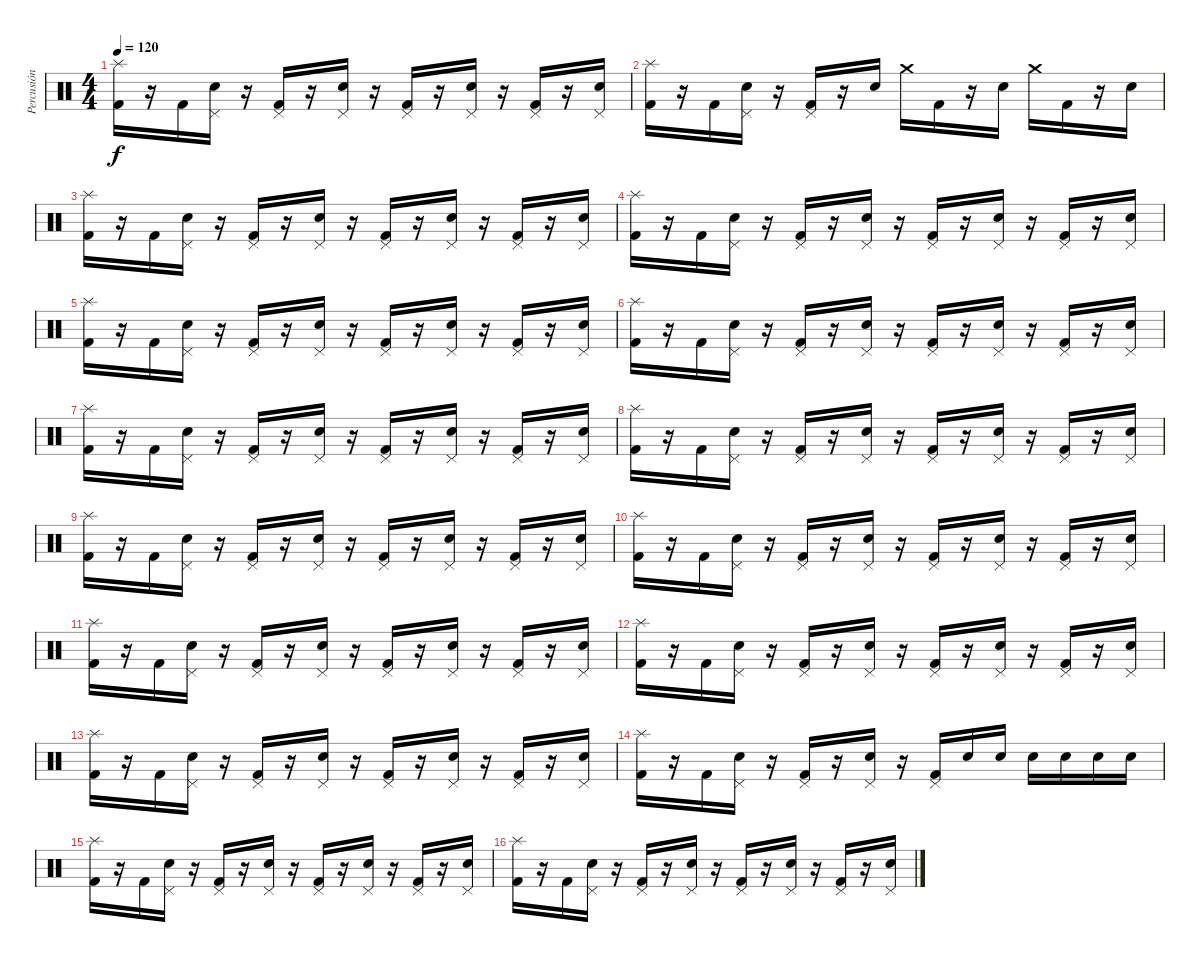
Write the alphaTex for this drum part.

\track ("Percusión" "Percusión") {instrument percussion}
\staff {score}
\articulation defaults
\ts (4 4)
\tempo 120
\clef neutral
\ks c
("Splash (hit)" "Kick (hit) 2").16{dy f} r.16 "Kick (hit) 2".16 ("Pedal Hi-Hat (hit)" "Snare (hit) 2").16 r.16 ("Pedal Hi-Hat (hit)" "Kick (hit) 2").16 r.16 ("Pedal Hi-Hat (hit)" "Snare (hit) 2").16 r.16 ("Pedal Hi-Hat (hit)" "Kick (hit) 2").16 r.16 ("Pedal Hi-Hat (hit)" "Snare (hit) 2").16 r.16 ("Pedal Hi-Hat (hit)" "Kick (hit) 2").16 r.16 ("Pedal Hi-Hat (hit)" "Snare (hit) 2").16 |
("Splash (hit)" "Kick (hit) 2").16 r.16 "Kick (hit) 2".16 ("Pedal Hi-Hat (hit)" "Snare (hit) 2").16 r.16 ("Pedal Hi-Hat (hit)" "Kick (hit) 2").16 r.16 "Snare (hit) 2".16 "Crash medium (hit)".16 "Kick (hit) 2".16 r.16 "Snare (hit) 2".16 "Crash medium (hit)".16 "Kick (hit) 2".16 r.16 "Snare (hit) 2".16 |
("Splash (hit)" "Kick (hit) 2").16 r.16 "Kick (hit) 2".16 ("Pedal Hi-Hat (hit)" "Snare (hit) 2").16 r.16 ("Pedal Hi-Hat (hit)" "Kick (hit) 2").16 r.16 ("Pedal Hi-Hat (hit)" "Snare (hit) 2").16 r.16 ("Pedal Hi-Hat (hit)" "Kick (hit) 2").16 r.16 ("Pedal Hi-Hat (hit)" "Snare (hit) 2").16 r.16 ("Pedal Hi-Hat (hit)" "Kick (hit) 2").16 r.16 ("Pedal Hi-Hat (hit)" "Snare (hit) 2").16 |
("Splash (hit)" "Kick (hit) 2").16 r.16 "Kick (hit) 2".16 ("Pedal Hi-Hat (hit)" "Snare (hit) 2").16 r.16 ("Pedal Hi-Hat (hit)" "Kick (hit) 2").16 r.16 ("Pedal Hi-Hat (hit)" "Snare (hit) 2").16 r.16 ("Pedal Hi-Hat (hit)" "Kick (hit) 2").16 r.16 ("Pedal Hi-Hat (hit)" "Snare (hit) 2").16 r.16 ("Pedal Hi-Hat (hit)" "Kick (hit) 2").16 r.16 ("Pedal Hi-Hat (hit)" "Snare (hit) 2").16 |
("Splash (hit)" "Kick (hit) 2").16 r.16 "Kick (hit) 2".16 ("Pedal Hi-Hat (hit)" "Snare (hit) 2").16 r.16 ("Pedal Hi-Hat (hit)" "Kick (hit) 2").16 r.16 ("Pedal Hi-Hat (hit)" "Snare (hit) 2").16 r.16 ("Pedal Hi-Hat (hit)" "Kick (hit) 2").16 r.16 ("Pedal Hi-Hat (hit)" "Snare (hit) 2").16 r.16 ("Pedal Hi-Hat (hit)" "Kick (hit) 2").16 r.16 ("Pedal Hi-Hat (hit)" "Snare (hit) 2").16 |
("Splash (hit)" "Kick (hit) 2").16 r.16 "Kick (hit) 2".16 ("Pedal Hi-Hat (hit)" "Snare (hit) 2").16 r.16 ("Pedal Hi-Hat (hit)" "Kick (hit) 2").16 r.16 ("Pedal Hi-Hat (hit)" "Snare (hit) 2").16 r.16 ("Pedal Hi-Hat (hit)" "Kick (hit) 2").16 r.16 ("Pedal Hi-Hat (hit)" "Snare (hit) 2").16 r.16 ("Pedal Hi-Hat (hit)" "Kick (hit) 2").16 r.16 ("Pedal Hi-Hat (hit)" "Snare (hit) 2").16 |
("Splash (hit)" "Kick (hit) 2").16 r.16 "Kick (hit) 2".16 ("Pedal Hi-Hat (hit)" "Snare (hit) 2").16 r.16 ("Pedal Hi-Hat (hit)" "Kick (hit) 2").16 r.16 ("Pedal Hi-Hat (hit)" "Snare (hit) 2").16 r.16 ("Pedal Hi-Hat (hit)" "Kick (hit) 2").16 r.16 ("Pedal Hi-Hat (hit)" "Snare (hit) 2").16 r.16 ("Pedal Hi-Hat (hit)" "Kick (hit) 2").16 r.16 ("Pedal Hi-Hat (hit)" "Snare (hit) 2").16 |
("Splash (hit)" "Kick (hit) 2").16 r.16 "Kick (hit) 2".16 ("Pedal Hi-Hat (hit)" "Snare (hit) 2").16 r.16 ("Pedal Hi-Hat (hit)" "Kick (hit) 2").16 r.16 ("Pedal Hi-Hat (hit)" "Snare (hit) 2").16 r.16 ("Pedal Hi-Hat (hit)" "Kick (hit) 2").16 r.16 ("Pedal Hi-Hat (hit)" "Snare (hit) 2").16 r.16 ("Pedal Hi-Hat (hit)" "Kick (hit) 2").16 r.16 ("Pedal Hi-Hat (hit)" "Snare (hit) 2").16 |
("Splash (hit)" "Kick (hit) 2").16 r.16 "Kick (hit) 2".16 ("Pedal Hi-Hat (hit)" "Snare (hit) 2").16 r.16 ("Pedal Hi-Hat (hit)" "Kick (hit) 2").16 r.16 ("Pedal Hi-Hat (hit)" "Snare (hit) 2").16 r.16 ("Pedal Hi-Hat (hit)" "Kick (hit) 2").16 r.16 ("Pedal Hi-Hat (hit)" "Snare (hit) 2").16 r.16 ("Pedal Hi-Hat (hit)" "Kick (hit) 2").16 r.16 ("Pedal Hi-Hat (hit)" "Snare (hit) 2").16 |
("Splash (hit)" "Kick (hit) 2").16 r.16 "Kick (hit) 2".16 ("Pedal Hi-Hat (hit)" "Snare (hit) 2").16 r.16 ("Pedal Hi-Hat (hit)" "Kick (hit) 2").16 r.16 ("Pedal Hi-Hat (hit)" "Snare (hit) 2").16 r.16 ("Pedal Hi-Hat (hit)" "Kick (hit) 2").16 r.16 ("Pedal Hi-Hat (hit)" "Snare (hit) 2").16 r.16 ("Pedal Hi-Hat (hit)" "Kick (hit) 2").16 r.16 ("Pedal Hi-Hat (hit)" "Snare (hit) 2").16 |
("Splash (hit)" "Kick (hit) 2").16 r.16 "Kick (hit) 2".16 ("Pedal Hi-Hat (hit)" "Snare (hit) 2").16 r.16 ("Pedal Hi-Hat (hit)" "Kick (hit) 2").16 r.16 ("Pedal Hi-Hat (hit)" "Snare (hit) 2").16 r.16 ("Pedal Hi-Hat (hit)" "Kick (hit) 2").16 r.16 ("Pedal Hi-Hat (hit)" "Snare (hit) 2").16 r.16 ("Pedal Hi-Hat (hit)" "Kick (hit) 2").16 r.16 ("Pedal Hi-Hat (hit)" "Snare (hit) 2").16 |
("Splash (hit)" "Kick (hit) 2").16 r.16 "Kick (hit) 2".16 ("Pedal Hi-Hat (hit)" "Snare (hit) 2").16 r.16 ("Pedal Hi-Hat (hit)" "Kick (hit) 2").16 r.16 ("Pedal Hi-Hat (hit)" "Snare (hit) 2").16 r.16 ("Pedal Hi-Hat (hit)" "Kick (hit) 2").16 r.16 ("Pedal Hi-Hat (hit)" "Snare (hit) 2").16 r.16 ("Pedal Hi-Hat (hit)" "Kick (hit) 2").16 r.16 ("Pedal Hi-Hat (hit)" "Snare (hit) 2").16 |
("Splash (hit)" "Kick (hit) 2").16 r.16 "Kick (hit) 2".16 ("Pedal Hi-Hat (hit)" "Snare (hit) 2").16 r.16 ("Pedal Hi-Hat (hit)" "Kick (hit) 2").16 r.16 ("Pedal Hi-Hat (hit)" "Snare (hit) 2").16 r.16 ("Pedal Hi-Hat (hit)" "Kick (hit) 2").16 r.16 ("Pedal Hi-Hat (hit)" "Snare (hit) 2").16 r.16 ("Pedal Hi-Hat (hit)" "Kick (hit) 2").16 r.16 ("Pedal Hi-Hat (hit)" "Snare (hit) 2").16 |
("Splash (hit)" "Kick (hit) 2").16 r.16 "Kick (hit) 2".16 ("Pedal Hi-Hat (hit)" "Snare (hit) 2").16 r.16 ("Pedal Hi-Hat (hit)" "Kick (hit) 2").16 r.16 ("Pedal Hi-Hat (hit)" "Snare (hit) 2").16 r.16 ("Pedal Hi-Hat (hit)" "Kick (hit) 2").16 "Snare (hit) 2".16 "Snare (hit) 2".16 "Snare (hit) 2".16 "Snare (hit) 2".16 "Snare (hit) 2".16 "Snare (hit) 2".16 |
("Splash (hit)" "Kick (hit) 2").16 r.16 "Kick (hit) 2".16 ("Pedal Hi-Hat (hit)" "Snare (hit) 2").16 r.16 ("Pedal Hi-Hat (hit)" "Kick (hit) 2").16 r.16 ("Pedal Hi-Hat (hit)" "Snare (hit) 2").16 r.16 ("Pedal Hi-Hat (hit)" "Kick (hit) 2").16 r.16 ("Pedal Hi-Hat (hit)" "Snare (hit) 2").16 r.16 ("Pedal Hi-Hat (hit)" "Kick (hit) 2").16 r.16 ("Pedal Hi-Hat (hit)" "Snare (hit) 2").16 |
("Splash (hit)" "Kick (hit) 2").16 r.16 "Kick (hit) 2".16 ("Pedal Hi-Hat (hit)" "Snare (hit) 2").16 r.16 ("Pedal Hi-Hat (hit)" "Kick (hit) 2").16 r.16 ("Pedal Hi-Hat (hit)" "Snare (hit) 2").16 r.16 ("Pedal Hi-Hat (hit)" "Kick (hit) 2").16 r.16 ("Pedal Hi-Hat (hit)" "Snare (hit) 2").16 r.16 ("Pedal Hi-Hat (hit)" "Kick (hit) 2").16 r.16 ("Pedal Hi-Hat (hit)" "Snare (hit) 2").16
